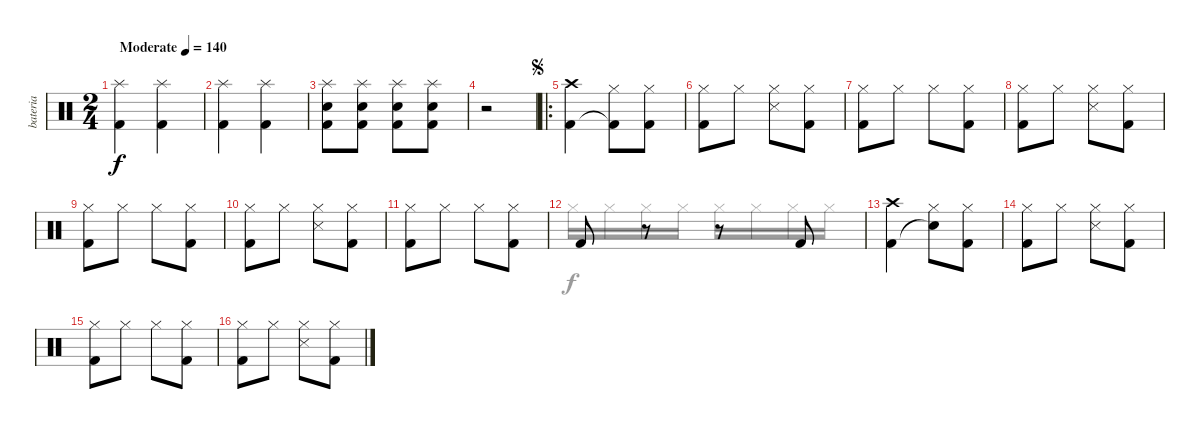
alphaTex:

\track ("bateria" "bateria") {instrument percussion}
\staff {score}
\articulation defaults
\voice
\ts (2 4)
\tempo (140 "Moderate")
\clef neutral
\ks c
("Splash (hit)" "Kick (hit) 2").4{dy f} ("Splash (hit)" "Kick (hit) 2").4 |
("Splash (hit)" "Kick (hit) 2").4 ("Splash (hit)" "Kick (hit) 2").4 |
("Splash (hit)" "Snare (hit) 2" "Kick (hit) 2").8 ("Splash (hit)" "Snare (hit) 2" "Kick (hit) 2").8 ("Splash (hit)" "Snare (hit) 2" "Kick (hit) 2").8 ("Splash (hit)" "Snare (hit) 2" "Kick (hit) 2").8 |
r.2 |
\ro
\jump segno
("Crash high (hit)" "Kick (hit) 2").4{volume 13} ("Hi-Hat (closed)" "Kick (hit) 2"{t}).8 ("Hi-Hat (closed)" "Kick (hit) 2").8 |
("Hi-Hat (closed)" "Kick (hit) 2").8 "Hi-Hat (closed)".8 ("Hi-Hat (closed)" "Snare (side stick) 3").8 ("Hi-Hat (closed)" "Kick (hit) 2").8 |
("Hi-Hat (closed)" "Kick (hit) 2").8 "Hi-Hat (closed)".8 "Hi-Hat (closed)".8 ("Hi-Hat (closed)" "Kick (hit) 2").8 |
("Hi-Hat (closed)" "Kick (hit) 2").8 "Hi-Hat (closed)".8 ("Hi-Hat (closed)" "Snare (side stick) 3").8 ("Hi-Hat (closed)" "Kick (hit) 2").8 |
("Hi-Hat (closed)" "Kick (hit) 2").8 "Hi-Hat (closed)".8 "Hi-Hat (closed)".8 ("Hi-Hat (closed)" "Kick (hit) 2").8 |
("Hi-Hat (closed)" "Kick (hit) 2").8 "Hi-Hat (closed)".8 ("Hi-Hat (closed)" "Snare (side stick) 3").8 ("Hi-Hat (closed)" "Kick (hit) 2").8 |
("Hi-Hat (closed)" "Kick (hit) 2").8 "Hi-Hat (closed)".8 "Hi-Hat (closed)".8 ("Hi-Hat (closed)" "Kick (hit) 2").8 |
"Kick (hit) 2".8 r.8 r.8 "Kick (hit) 2".8 |
("Crash high (hit)" "Kick (hit) 2").4 ("Hi-Hat (closed)" "Snare (hit)"{t}).8 ("Hi-Hat (closed)" "Kick (hit) 2").8 |
("Hi-Hat (closed)" "Kick (hit) 2").8 "Hi-Hat (closed)".8 ("Hi-Hat (closed)" "Snare (side stick) 3").8 ("Hi-Hat (closed)" "Kick (hit) 2").8 |
("Hi-Hat (closed)" "Kick (hit) 2").8 "Hi-Hat (closed)".8 "Hi-Hat (closed)".8 ("Hi-Hat (closed)" "Kick (hit) 2").8 |
("Hi-Hat (closed)" "Kick (hit) 2").8 "Hi-Hat (closed)".8 ("Hi-Hat (closed)" "Snare (side stick) 3").8 ("Hi-Hat (closed)" "Kick (hit) 2").8
\voice
\clef neutral
\ottava regular
\simile none
\ks c
|
|
|
|
|
|
|
|
|
|
|
"Hi-Hat (closed)".16 "Hi-Hat (closed)".16 "Hi-Hat (closed)".16 "Hi-Hat (closed)".16 "Hi-Hat (closed)".16 "Hi-Hat (closed)".16 "Hi-Hat (closed)".16 "Hi-Hat (closed)".16 |
|
|
|
